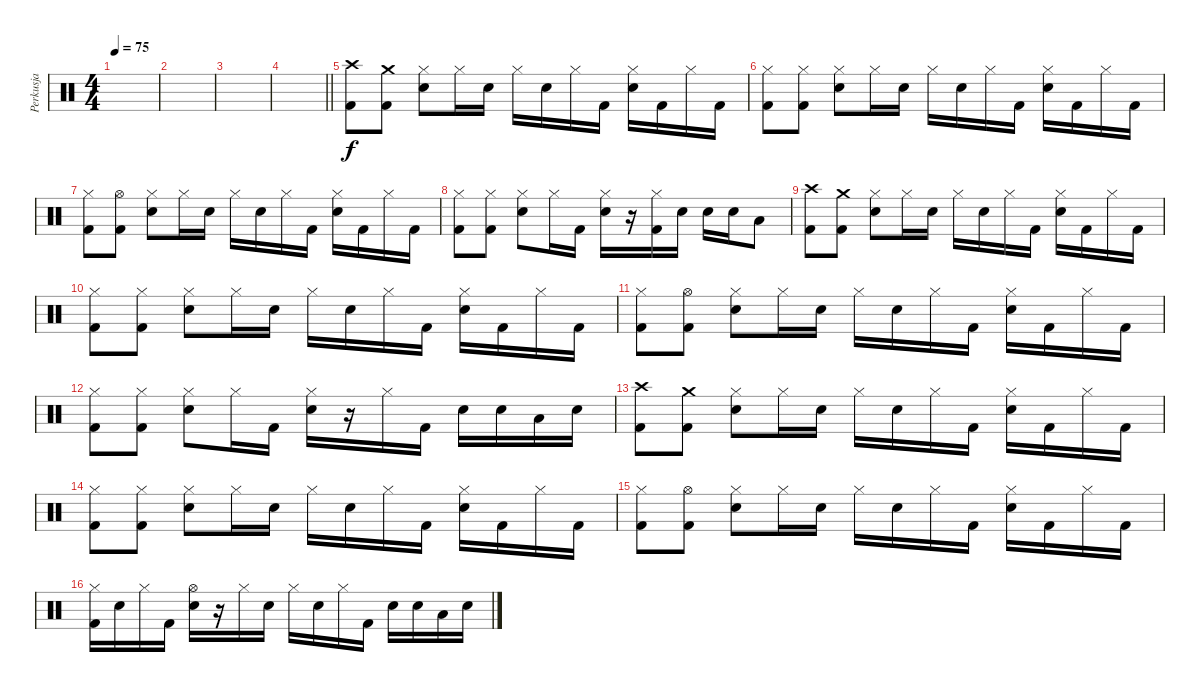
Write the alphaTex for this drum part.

\track ("Perkusja" "Perkusja") {instrument percussion}
\staff {score}
\articulation defaults
\ts (4 4)
\tempo 75
\clef neutral
\ks c
|
|
|
\barLineRight lightlight
|
\section ("" "")
("Crash high (hit)" "Kick (hit) 2").8 ("Crash medium (hit)" "Kick (hit) 2").8 ("Hi-Hat (closed)" "Snare (hit) 2").8 "Hi-Hat (closed)".16 "Snare (hit) 2".16 "Hi-Hat (closed)".16 "Snare (hit) 2".16 "Hi-Hat (closed)".16 "Kick (hit) 2".16 ("Hi-Hat (closed)" "Snare (hit) 2").16 "Kick (hit) 2".16 "Hi-Hat (closed)".16 "Kick (hit) 2".16 |
("Hi-Hat (closed)" "Kick (hit) 2").8 ("Hi-Hat (closed)" "Kick (hit) 2").8 ("Hi-Hat (closed)" "Snare (hit) 2").8 "Hi-Hat (closed)".16 "Snare (hit) 2".16 "Hi-Hat (closed)".16 "Snare (hit) 2".16 "Hi-Hat (closed)".16 "Kick (hit) 2".16 ("Hi-Hat (closed)" "Snare (hit) 2").16 "Kick (hit) 2".16 "Hi-Hat (closed)".16 "Kick (hit) 2".16 |
("Hi-Hat (closed)" "Kick (hit) 2").8 ("Hi-Hat (open)" "Kick (hit) 2").8 ("Hi-Hat (closed)" "Snare (hit) 2").8 "Hi-Hat (closed)".16 "Snare (hit) 2".16 "Hi-Hat (closed)".16 "Snare (hit) 2".16 "Hi-Hat (closed)".16 "Kick (hit) 2".16 ("Hi-Hat (closed)" "Snare (hit) 2").16 "Kick (hit) 2".16 "Hi-Hat (closed)".16 "Kick (hit) 2".16 |
("Hi-Hat (closed)" "Kick (hit) 2").8 ("Hi-Hat (closed)" "Kick (hit) 2").8 ("Hi-Hat (closed)" "Snare (hit) 2").8 "Hi-Hat (closed)".16 "Kick (hit) 2".16 ("Hi-Hat (closed)" "Snare (hit) 2").16 r.16 ("Hi-Hat (closed)" "Kick (hit) 2").16 "Snare (hit) 2".16 "Snare (hit) 2".16 "Snare (hit) 2".16 "Low Tom (hit)".8 |
("Crash high (hit)" "Kick (hit) 2").8 ("Crash medium (hit)" "Kick (hit) 2").8 ("Hi-Hat (closed)" "Snare (hit) 2").8 "Hi-Hat (closed)".16 "Snare (hit) 2".16 "Hi-Hat (closed)".16 "Snare (hit) 2".16 "Hi-Hat (closed)".16 "Kick (hit) 2".16 ("Hi-Hat (closed)" "Snare (hit) 2").16 "Kick (hit) 2".16 "Hi-Hat (closed)".16 "Kick (hit) 2".16 |
("Hi-Hat (closed)" "Kick (hit) 2").8 ("Hi-Hat (closed)" "Kick (hit) 2").8 ("Hi-Hat (closed)" "Snare (hit) 2").8 "Hi-Hat (closed)".16 "Snare (hit) 2".16 "Hi-Hat (closed)".16 "Snare (hit) 2".16 "Hi-Hat (closed)".16 "Kick (hit) 2".16 ("Hi-Hat (closed)" "Snare (hit) 2").16 "Kick (hit) 2".16 "Hi-Hat (closed)".16 "Kick (hit) 2".16 |
("Hi-Hat (closed)" "Kick (hit) 2").8 ("Hi-Hat (open)" "Kick (hit) 2").8 ("Hi-Hat (closed)" "Snare (hit) 2").8 "Hi-Hat (closed)".16 "Snare (hit) 2".16 "Hi-Hat (closed)".16 "Snare (hit) 2".16 "Hi-Hat (closed)".16 "Kick (hit) 2".16 ("Hi-Hat (closed)" "Snare (hit) 2").16 "Kick (hit) 2".16 "Hi-Hat (closed)".16 "Kick (hit) 2".16 |
("Hi-Hat (closed)" "Kick (hit) 2").8 ("Hi-Hat (closed)" "Kick (hit) 2").8 ("Hi-Hat (closed)" "Snare (hit) 2").8 "Hi-Hat (closed)".16 "Kick (hit) 2".16 ("Hi-Hat (closed)" "Snare (hit) 2").16 r.16 "Hi-Hat (closed)".16 "Kick (hit) 2".16 "Snare (hit) 2".16 "Snare (hit) 2".16 "Low Tom (hit)".16 "Snare (hit) 2".16 |
("Crash high (hit)" "Kick (hit) 2").8 ("Crash medium (hit)" "Kick (hit) 2").8 ("Hi-Hat (closed)" "Snare (hit) 2").8 "Hi-Hat (closed)".16 "Snare (hit) 2".16 "Hi-Hat (closed)".16 "Snare (hit) 2".16 "Hi-Hat (closed)".16 "Kick (hit) 2".16 ("Hi-Hat (closed)" "Snare (hit) 2").16 "Kick (hit) 2".16 "Hi-Hat (closed)".16 "Kick (hit) 2".16 |
("Hi-Hat (closed)" "Kick (hit) 2").8 ("Hi-Hat (closed)" "Kick (hit) 2").8 ("Hi-Hat (closed)" "Snare (hit) 2").8 "Hi-Hat (closed)".16 "Snare (hit) 2".16 "Hi-Hat (closed)".16 "Snare (hit) 2".16 "Hi-Hat (closed)".16 "Kick (hit) 2".16 ("Hi-Hat (closed)" "Snare (hit) 2").16 "Kick (hit) 2".16 "Hi-Hat (closed)".16 "Kick (hit) 2".16 |
("Hi-Hat (closed)" "Kick (hit) 2").8 ("Hi-Hat (open)" "Kick (hit) 2").8 ("Hi-Hat (closed)" "Snare (hit) 2").8 "Hi-Hat (closed)".16 "Snare (hit) 2".16 "Hi-Hat (closed)".16 "Snare (hit) 2".16 "Hi-Hat (closed)".16 "Kick (hit) 2".16 ("Hi-Hat (closed)" "Snare (hit) 2").16 "Kick (hit) 2".16 "Hi-Hat (closed)".16 "Kick (hit) 2".16 |
("Hi-Hat (closed)" "Kick (hit) 2").16 "Snare (hit) 2".16 "Hi-Hat (closed)".16 "Kick (hit) 2".16 ("Hi-Hat (open)" "Snare (hit) 2").16 r.16 "Hi-Hat (closed)".16 "Snare (hit) 2".16 "Hi-Hat (closed)".16 "Snare (hit) 2".16 "Hi-Hat (closed)".16 "Kick (hit) 2".16 "Snare (hit) 2".16 "Snare (hit) 2".16 "Low Tom (hit)".16 "Snare (hit) 2".16
